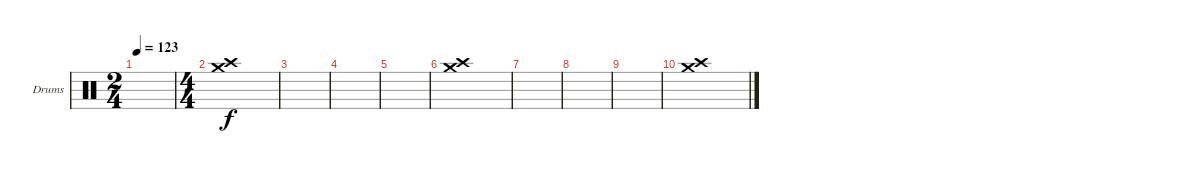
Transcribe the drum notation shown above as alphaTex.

\defaultSystemsLayout 4
\bracketExtendMode groupsimilarinstruments
\firstSystemTrackNameOrientation horizontal
\otherSystemsTrackNameOrientation horizontal
\track ("Drumkit" "Drums") {instrument percussion}
\staff {score}
\articulation defaults
\ts (2 4)
\tempo 123
\clef neutral
\ks c
|
\ts (4 4)
("Crash medium (hit)" "Crash high (hit)").1 |
|
|
|
("Crash medium (hit)" "Crash high (hit)").1 |
|
|
|
("Crash medium (hit)" "Crash high (hit)").1
